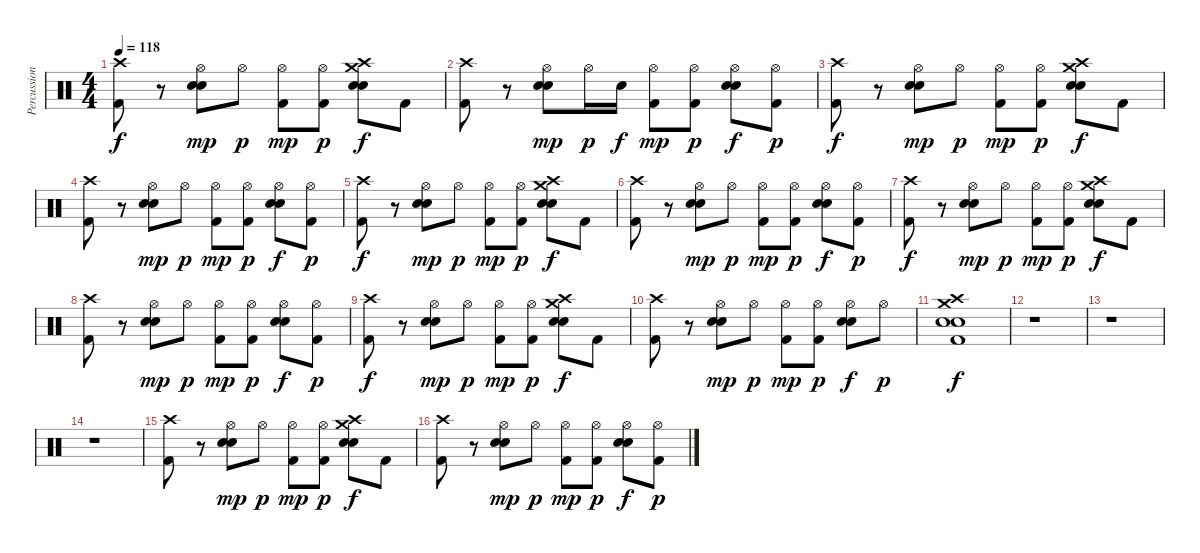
\track ("Percussion" "Percussion") {instrument percussion}
\staff
\articulation defaults
\ts (4 4)
\tempo 118
\clef neutral
\ks c
("Crash high (hit)" "Kick (hit) 2").8{dy f} r.8 ("Hi-Hat (open)" "Electric Snare (hit)" "Snare (hit) 2").8{dy mp} "Hi-Hat (open)".8{dy p} ("Hi-Hat (open)" "Kick (hit) 2").8{dy mp} ("Hi-Hat (open)" "Kick (hit) 2").8{dy p} ("Crash medium (hit)" "Crash high (hit)" "Electric Snare (hit)" "Snare (hit) 2").8{dy f} "Kick (hit) 2".8 |
("Crash high (hit)" "Kick (hit) 2").8 r.8 ("Hi-Hat (open)" "Electric Snare (hit)" "Snare (hit) 2").8{dy mp} "Hi-Hat (open)".16{dy p} "Electric Snare (hit)".16{dy f} ("Hi-Hat (open)" "Kick (hit) 2").8{dy mp} ("Hi-Hat (open)" "Kick (hit) 2").8{dy p} ("Hi-Hat (open)" "Electric Snare (hit)" "Snare (hit) 2").8{dy f} ("Hi-Hat (open)" "Kick (hit) 2").8{dy p} |
("Crash high (hit)" "Kick (hit) 2").8{dy f} r.8 ("Hi-Hat (open)" "Electric Snare (hit)" "Snare (hit) 2").8{dy mp} "Hi-Hat (open)".8{dy p} ("Hi-Hat (open)" "Kick (hit) 2").8{dy mp} ("Hi-Hat (open)" "Kick (hit) 2").8{dy p} ("Crash medium (hit)" "Crash high (hit)" "Electric Snare (hit)" "Snare (hit) 2").8{dy f} "Kick (hit) 2".8 |
("Crash high (hit)" "Kick (hit) 2").8 r.8 ("Hi-Hat (open)" "Electric Snare (hit)" "Snare (hit) 2").8{dy mp} "Hi-Hat (open)".8{dy p} ("Hi-Hat (open)" "Kick (hit) 2").8{dy mp} ("Hi-Hat (open)" "Kick (hit) 2").8{dy p} ("Hi-Hat (open)" "Electric Snare (hit)" "Snare (hit) 2").8{dy f} ("Hi-Hat (open)" "Kick (hit) 2").8{dy p} |
("Crash high (hit)" "Kick (hit) 2").8{dy f} r.8 ("Hi-Hat (open)" "Electric Snare (hit)" "Snare (hit) 2").8{dy mp} "Hi-Hat (open)".8{dy p} ("Hi-Hat (open)" "Kick (hit) 2").8{dy mp} ("Hi-Hat (open)" "Kick (hit) 2").8{dy p} ("Crash medium (hit)" "Crash high (hit)" "Electric Snare (hit)" "Snare (hit) 2").8{dy f} "Kick (hit) 2".8 |
("Crash high (hit)" "Kick (hit) 2").8 r.8 ("Hi-Hat (open)" "Electric Snare (hit)" "Snare (hit) 2").8{dy mp} "Hi-Hat (open)".8{dy p} ("Hi-Hat (open)" "Kick (hit) 2").8{dy mp} ("Hi-Hat (open)" "Kick (hit) 2").8{dy p} ("Hi-Hat (open)" "Electric Snare (hit)" "Snare (hit) 2").8{dy f} ("Hi-Hat (open)" "Kick (hit) 2").8{dy p} |
("Crash high (hit)" "Kick (hit) 2").8{dy f} r.8 ("Hi-Hat (open)" "Electric Snare (hit)" "Snare (hit) 2").8{dy mp} "Hi-Hat (open)".8{dy p} ("Hi-Hat (open)" "Kick (hit) 2").8{dy mp} ("Hi-Hat (open)" "Kick (hit) 2").8{dy p} ("Crash medium (hit)" "Crash high (hit)" "Electric Snare (hit)" "Snare (hit) 2").8{dy f} "Kick (hit) 2".8 |
("Crash high (hit)" "Kick (hit) 2").8 r.8 ("Hi-Hat (open)" "Electric Snare (hit)" "Snare (hit) 2").8{dy mp} "Hi-Hat (open)".8{dy p} ("Hi-Hat (open)" "Kick (hit) 2").8{dy mp} ("Hi-Hat (open)" "Kick (hit) 2").8{dy p} ("Hi-Hat (open)" "Electric Snare (hit)" "Snare (hit) 2").8{dy f} ("Hi-Hat (open)" "Kick (hit) 2").8{dy p} |
("Crash high (hit)" "Kick (hit) 2").8{dy f} r.8 ("Hi-Hat (open)" "Electric Snare (hit)" "Snare (hit) 2").8{dy mp} "Hi-Hat (open)".8{dy p} ("Hi-Hat (open)" "Kick (hit) 2").8{dy mp} ("Hi-Hat (open)" "Kick (hit) 2").8{dy p} ("Crash medium (hit)" "Crash high (hit)" "Electric Snare (hit)" "Snare (hit) 2").8{dy f} "Kick (hit) 2".8 |
("Crash high (hit)" "Kick (hit) 2").8 r.8 ("Hi-Hat (open)" "Electric Snare (hit)" "Snare (hit) 2").8{dy mp} "Hi-Hat (open)".8{dy p} ("Hi-Hat (open)" "Kick (hit) 2").8{dy mp} ("Hi-Hat (open)" "Kick (hit) 2").8{dy p} ("Hi-Hat (open)" "Electric Snare (hit)" "Snare (hit) 2").8{dy f} "Hi-Hat (open)".8{dy p} |
("Crash high (hit)" "Crash medium (hit)" "Electric Snare (hit)" "Snare (hit) 2" "Kick (hit) 2").1{dy f} |
r.1 |
r.1 |
r.1 |
("Crash high (hit)" "Kick (hit) 2").8 r.8 ("Hi-Hat (open)" "Electric Snare (hit)" "Snare (hit) 2").8{dy mp} "Hi-Hat (open)".8{dy p} ("Hi-Hat (open)" "Kick (hit) 2").8{dy mp} ("Hi-Hat (open)" "Kick (hit) 2").8{dy p} ("Crash medium (hit)" "Crash high (hit)" "Electric Snare (hit)" "Snare (hit) 2").8{dy f} "Kick (hit) 2".8 |
("Crash high (hit)" "Kick (hit) 2").8 r.8 ("Hi-Hat (open)" "Electric Snare (hit)" "Snare (hit) 2").8{dy mp} "Hi-Hat (open)".8{dy p} ("Hi-Hat (open)" "Kick (hit) 2").8{dy mp} ("Hi-Hat (open)" "Kick (hit) 2").8{dy p} ("Hi-Hat (open)" "Electric Snare (hit)" "Snare (hit) 2").8{dy f} ("Hi-Hat (open)" "Kick (hit) 2").8{dy p}
